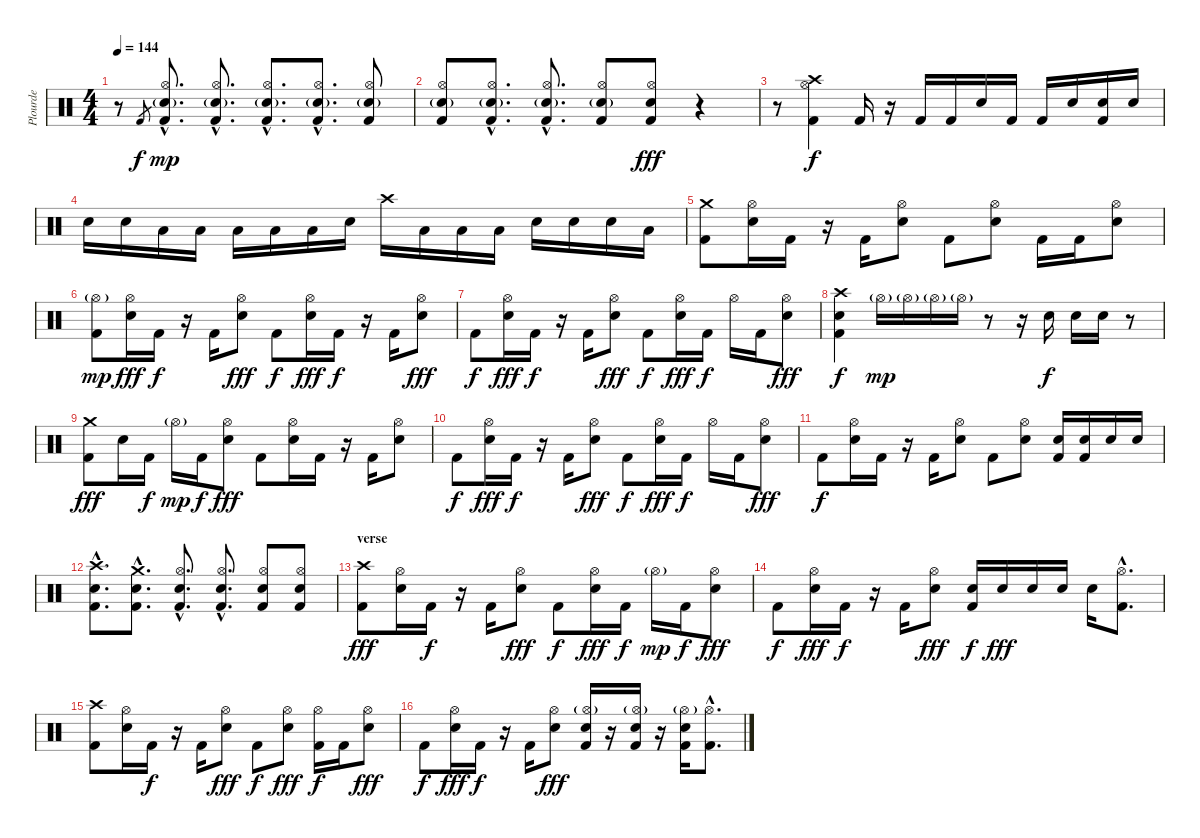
\track ("Plourde" "Plourde") {instrument percussion}
\staff {score}
\articulation defaults
\ts (4 4)
\tempo 144
\clef neutral
\ks c
r.8{dy f} "Kick (hit) 2".8{gr} ("Kick (hit) 2"{hac} "Hi-Hat (open)"{hac} "Electric Snare (hit)"{g hac}).8{d dy mp} ("Kick (hit) 2"{hac} "Hi-Hat (open)"{hac} "Electric Snare (hit)"{g hac}).8{d} ("Kick (hit) 2"{hac} "Hi-Hat (open)"{hac} "Electric Snare (hit)"{g hac}).8{d} ("Kick (hit) 2"{hac} "Hi-Hat (open)"{hac} "Electric Snare (hit)"{g hac}).8{d} ("Kick (hit) 2" "Hi-Hat (open)" "Electric Snare (hit)"{g}).8 |
("Kick (hit) 2" "Hi-Hat (open)" "Electric Snare (hit)"{g}).8 ("Kick (hit) 2"{hac} "Hi-Hat (open)"{hac} "Electric Snare (hit)"{g hac}).8{d} ("Kick (hit) 2"{hac} "Hi-Hat (open)"{hac} "Electric Snare (hit)"{g hac}).8{d} ("Kick (hit) 2" "Hi-Hat (open)" "Electric Snare (hit)"{g}).8 ("Kick (hit) 2" "Electric Snare (hit)" "Hi-Hat (open)").8{dy fff} r.4 |
r.8 ("Crash high (hit)" "Kick (hit) 2" "Hi-Hat (open)").4{dy f} "Kick (hit) 2".16 r.16 "Kick (hit) 2".16 "Kick (hit) 2".16 "Electric Snare (hit)".16 "Kick (hit) 2".16 "Kick (hit) 2".16 "Electric Snare (hit)".16 ("Electric Snare (hit)" "Kick (hit) 2").16 "Electric Snare (hit)".16 |
"Electric Snare (hit)".16 "Electric Snare (hit)".16 "Low Tom (hit)".16 "Low Tom (hit)".16 "Low Floor Tom (hit)".16 "Low Floor Tom (hit)".16 "Low Floor Tom (hit)".16 "Electric Snare (hit)".16 "Crash high (hit)".16 "Low Floor Tom (hit)".16 "Low Tom (hit)".16 "Low Tom (hit)".16 "Electric Snare (hit)".16 "Electric Snare (hit)".16 "Electric Snare (hit)".16 "Low Floor Tom (hit)".16 |
("Crash medium (hit)" "Kick (hit) 2").8 ("Hi-Hat (open)" "Electric Snare (hit)").16 "Kick (hit) 2".16 r.16 "Kick (hit) 2".16 ("Hi-Hat (open)" "Electric Snare (hit)").8 "Kick (hit) 2".8 ("Hi-Hat (open)" "Electric Snare (hit)").8 "Kick (hit) 2".16 "Kick (hit) 2".16 ("Hi-Hat (open)" "Electric Snare (hit)").8 |
("Hi-Hat (open)"{g} "Kick (hit) 2").8{dy mp} ("Hi-Hat (open)" "Electric Snare (hit)").16{dy fff} "Kick (hit) 2".16{dy f} r.16 "Kick (hit) 2".16 ("Hi-Hat (open)" "Electric Snare (hit)").8{dy fff} "Kick (hit) 2".8{dy f} ("Hi-Hat (open)" "Electric Snare (hit)").16{dy fff} "Kick (hit) 2".16{dy f} r.16 "Kick (hit) 2".16 ("Hi-Hat (open)" "Electric Snare (hit)").8{dy fff} |
"Kick (hit) 2".8{dy f} ("Hi-Hat (open)" "Electric Snare (hit)").16{dy fff} "Kick (hit) 2".16{dy f} r.16 "Kick (hit) 2".16 ("Hi-Hat (open)" "Electric Snare (hit)").8{dy fff} "Kick (hit) 2".8{dy f} ("Hi-Hat (open)" "Electric Snare (hit)").16{dy fff} "Kick (hit) 2".16{dy f} "Hi-Hat (open)".16 "Kick (hit) 2".16 ("Hi-Hat (open)" "Electric Snare (hit)").8{dy fff} |
("Crash high (hit)" "Kick (hit) 2" "Electric Snare (hit)").4{dy f} "Hi-Hat (open)"{g}.16{dy mp} "Hi-Hat (open)"{g}.16 "Hi-Hat (open)"{g}.16 "Hi-Hat (open)"{g}.16 r.8 r.16 "Electric Snare (hit)".16{dy f} "Electric Snare (hit)".16 "Electric Snare (hit)".16 r.8 |
("Crash medium (hit)" "Kick (hit) 2").8{dy fff} "Electric Snare (hit)".16 "Kick (hit) 2".16{dy f} "Hi-Hat (open)"{g}.16{dy mp} "Kick (hit) 2".16{dy f} ("Hi-Hat (open)" "Electric Snare (hit)").8{dy fff} "Kick (hit) 2".8 ("Hi-Hat (open)" "Electric Snare (hit)").16 "Kick (hit) 2".16 r.16 "Kick (hit) 2".16 ("Hi-Hat (open)" "Electric Snare (hit)").8 |
"Kick (hit) 2".8{dy f} ("Hi-Hat (open)" "Electric Snare (hit)").16{dy fff} "Kick (hit) 2".16{dy f} r.16 "Kick (hit) 2".16 ("Hi-Hat (open)" "Electric Snare (hit)").8{dy fff} "Kick (hit) 2".8{dy f} ("Hi-Hat (open)" "Electric Snare (hit)").16{dy fff} "Kick (hit) 2".16{dy f} "Hi-Hat (open)".16 "Kick (hit) 2".16 ("Hi-Hat (open)" "Electric Snare (hit)").8{dy fff} |
"Kick (hit) 2".8{dy f} ("Hi-Hat (open)" "Electric Snare (hit)").16 "Kick (hit) 2".16 r.16 "Kick (hit) 2".16 ("Hi-Hat (open)" "Electric Snare (hit)").8 "Kick (hit) 2".8 ("Hi-Hat (open)" "Electric Snare (hit)").8 ("Electric Snare (hit)" "Kick (hit) 2").16 ("Electric Snare (hit)" "Kick (hit) 2").16 "Electric Snare (hit)".16 "Electric Snare (hit)".16 |
("Crash high (hit)"{hac} "Electric Snare (hit)"{hac} "Kick (hit) 2"{hac}).8{d} ("Crash medium (hit)"{hac} "Electric Snare (hit)"{hac} "Kick (hit) 2"{hac}).8{d} ("Hi-Hat (open)"{hac} "Electric Snare (hit)"{hac} "Kick (hit) 2"{hac}).8{d} ("Hi-Hat (open)"{hac} "Electric Snare (hit)"{hac} "Kick (hit) 2"{hac}).8{d} ("Hi-Hat (open)" "Electric Snare (hit)" "Kick (hit) 2").8 ("Hi-Hat (open)" "Electric Snare (hit)" "Kick (hit) 2").8 |
\section ("" "verse")
("Crash high (hit)" "Kick (hit) 2").8{dy fff} ("Hi-Hat (open)" "Electric Snare (hit)").16 "Kick (hit) 2".16{dy f} r.16 "Kick (hit) 2".16 ("Hi-Hat (open)" "Electric Snare (hit)").8{dy fff} "Kick (hit) 2".8{dy f} ("Hi-Hat (open)" "Electric Snare (hit)").16{dy fff} "Kick (hit) 2".16{dy f} "Hi-Hat (open)"{g}.16{dy mp} "Kick (hit) 2".16{dy f} ("Hi-Hat (open)" "Electric Snare (hit)").8{dy fff} |
"Kick (hit) 2".8{dy f} ("Hi-Hat (open)" "Electric Snare (hit)").16{dy fff} "Kick (hit) 2".16{dy f} r.16 "Kick (hit) 2".16 ("Hi-Hat (open)" "Electric Snare (hit)").8{dy fff} ("Electric Snare (hit)" "Kick (hit) 2").16{dy f} "Electric Snare (hit)".16{dy fff} "Electric Snare (hit)".16 "Electric Snare (hit)".16 "Electric Snare (hit)".16 ("Hi-Hat (open)"{hac} "Kick (hit) 2"{hac}).8{d} |
("Crash high (hit)" "Kick (hit) 2").8 ("Hi-Hat (open)" "Electric Snare (hit)").16 "Kick (hit) 2".16{dy f} r.16 "Kick (hit) 2".16 ("Hi-Hat (open)" "Electric Snare (hit)").8{dy fff} "Kick (hit) 2".8{dy f} ("Hi-Hat (open)" "Electric Snare (hit)").8{dy fff} ("Hi-Hat (open)" "Kick (hit) 2").16{dy f} "Kick (hit) 2".16 ("Hi-Hat (open)" "Electric Snare (hit)").8{dy fff} |
"Kick (hit) 2".8{dy f} ("Hi-Hat (open)" "Electric Snare (hit)").16{dy fff} "Kick (hit) 2".16{dy f} r.16 "Kick (hit) 2".16 ("Hi-Hat (open)" "Electric Snare (hit)").8{dy fff} ("Hi-Hat (open)"{g} "Electric Snare (hit)" "Kick (hit) 2").16 r.16 ("Hi-Hat (open)"{g} "Electric Snare (hit)" "Kick (hit) 2").16 r.16 ("Hi-Hat (open)"{g} "Electric Snare (hit)" "Kick (hit) 2").16 ("Hi-Hat (open)"{hac} "Kick (hit) 2"{hac}).8{d}
